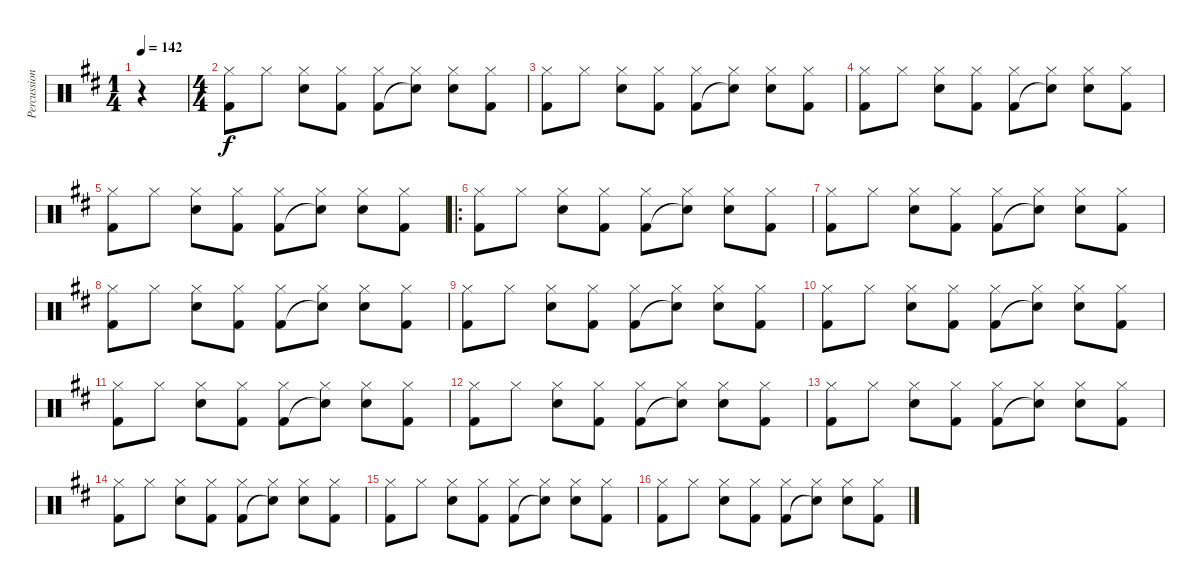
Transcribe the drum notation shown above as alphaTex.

\track ("Percussion" "Percussion") {instrument percussion}
\staff {score}
\articulation defaults
\ts (1 4)
\tempo 142
\clef neutral
\ks d
r.4{dy f} |
\ts (4 4)
("Hi-Hat (closed)" "Kick (hit) 2").8 "Hi-Hat (closed)".8 ("Hi-Hat (closed)" "Snare (hit) 2").8 ("Hi-Hat (closed)" "Kick (hit) 2").8 ("Hi-Hat (closed)" "Kick (hit) 2").8 ("Hi-Hat (closed)" "Snare (hit)"{t}).8 ("Hi-Hat (closed)" "Snare (hit) 2").8 ("Hi-Hat (closed)" "Kick (hit) 2").8 |
("Hi-Hat (closed)" "Kick (hit) 2").8 "Hi-Hat (closed)".8 ("Hi-Hat (closed)" "Snare (hit) 2").8 ("Hi-Hat (closed)" "Kick (hit) 2").8 ("Hi-Hat (closed)" "Kick (hit) 2").8 ("Hi-Hat (closed)" "Snare (hit)"{t}).8 ("Hi-Hat (closed)" "Snare (hit) 2").8 ("Hi-Hat (closed)" "Kick (hit) 2").8 |
("Hi-Hat (closed)" "Kick (hit) 2").8 "Hi-Hat (closed)".8 ("Hi-Hat (closed)" "Snare (hit) 2").8 ("Hi-Hat (closed)" "Kick (hit) 2").8 ("Hi-Hat (closed)" "Kick (hit) 2").8 ("Hi-Hat (closed)" "Snare (hit)"{t}).8 ("Hi-Hat (closed)" "Snare (hit) 2").8 ("Hi-Hat (closed)" "Kick (hit) 2").8 |
("Hi-Hat (closed)" "Kick (hit) 2").8 "Hi-Hat (closed)".8 ("Hi-Hat (closed)" "Snare (hit) 2").8 ("Hi-Hat (closed)" "Kick (hit) 2").8 ("Hi-Hat (closed)" "Kick (hit) 2").8 ("Hi-Hat (closed)" "Snare (hit)"{t}).8 ("Hi-Hat (closed)" "Snare (hit) 2").8 ("Hi-Hat (closed)" "Kick (hit) 2").8 |
\ro
("Hi-Hat (closed)" "Kick (hit) 2").8 "Hi-Hat (closed)".8 ("Hi-Hat (closed)" "Snare (hit) 2").8 ("Hi-Hat (closed)" "Kick (hit) 2").8 ("Hi-Hat (closed)" "Kick (hit) 2").8 ("Hi-Hat (closed)" "Snare (hit)"{t}).8 ("Hi-Hat (closed)" "Snare (hit) 2").8 ("Hi-Hat (closed)" "Kick (hit) 2").8 |
("Hi-Hat (closed)" "Kick (hit) 2").8 "Hi-Hat (closed)".8 ("Hi-Hat (closed)" "Snare (hit) 2").8 ("Hi-Hat (closed)" "Kick (hit) 2").8 ("Hi-Hat (closed)" "Kick (hit) 2").8 ("Hi-Hat (closed)" "Snare (hit)"{t}).8 ("Hi-Hat (closed)" "Snare (hit) 2").8 ("Hi-Hat (closed)" "Kick (hit) 2").8 |
("Hi-Hat (closed)" "Kick (hit) 2").8 "Hi-Hat (closed)".8 ("Hi-Hat (closed)" "Snare (hit) 2").8 ("Hi-Hat (closed)" "Kick (hit) 2").8 ("Hi-Hat (closed)" "Kick (hit) 2").8 ("Hi-Hat (closed)" "Snare (hit)"{t}).8 ("Hi-Hat (closed)" "Snare (hit) 2").8 ("Hi-Hat (closed)" "Kick (hit) 2").8 |
("Hi-Hat (closed)" "Kick (hit) 2").8 "Hi-Hat (closed)".8 ("Hi-Hat (closed)" "Snare (hit) 2").8 ("Hi-Hat (closed)" "Kick (hit) 2").8 ("Hi-Hat (closed)" "Kick (hit) 2").8 ("Hi-Hat (closed)" "Snare (hit)"{t}).8 ("Hi-Hat (closed)" "Snare (hit) 2").8 ("Hi-Hat (closed)" "Kick (hit) 2").8 |
("Hi-Hat (closed)" "Kick (hit) 2").8 "Hi-Hat (closed)".8 ("Hi-Hat (closed)" "Snare (hit) 2").8 ("Hi-Hat (closed)" "Kick (hit) 2").8 ("Hi-Hat (closed)" "Kick (hit) 2").8 ("Hi-Hat (closed)" "Snare (hit)"{t}).8 ("Hi-Hat (closed)" "Snare (hit) 2").8 ("Hi-Hat (closed)" "Kick (hit) 2").8 |
("Hi-Hat (closed)" "Kick (hit) 2").8 "Hi-Hat (closed)".8 ("Hi-Hat (closed)" "Snare (hit) 2").8 ("Hi-Hat (closed)" "Kick (hit) 2").8 ("Hi-Hat (closed)" "Kick (hit) 2").8 ("Hi-Hat (closed)" "Snare (hit)"{t}).8 ("Hi-Hat (closed)" "Snare (hit) 2").8 ("Hi-Hat (closed)" "Kick (hit) 2").8 |
("Hi-Hat (closed)" "Kick (hit) 2").8 "Hi-Hat (closed)".8 ("Hi-Hat (closed)" "Snare (hit) 2").8 ("Hi-Hat (closed)" "Kick (hit) 2").8 ("Hi-Hat (closed)" "Kick (hit) 2").8 ("Hi-Hat (closed)" "Snare (hit)"{t}).8 ("Hi-Hat (closed)" "Snare (hit) 2").8 ("Hi-Hat (closed)" "Kick (hit) 2").8 |
("Hi-Hat (closed)" "Kick (hit) 2").8 "Hi-Hat (closed)".8 ("Hi-Hat (closed)" "Snare (hit) 2").8 ("Hi-Hat (closed)" "Kick (hit) 2").8 ("Hi-Hat (closed)" "Kick (hit) 2").8 ("Hi-Hat (closed)" "Snare (hit)"{t}).8 ("Hi-Hat (closed)" "Snare (hit) 2").8 ("Hi-Hat (closed)" "Kick (hit) 2").8 |
("Hi-Hat (closed)" "Kick (hit) 2").8 "Hi-Hat (closed)".8 ("Hi-Hat (closed)" "Snare (hit) 2").8 ("Hi-Hat (closed)" "Kick (hit) 2").8 ("Hi-Hat (closed)" "Kick (hit) 2").8 ("Hi-Hat (closed)" "Snare (hit)"{t}).8 ("Hi-Hat (closed)" "Snare (hit) 2").8 ("Hi-Hat (closed)" "Kick (hit) 2").8 |
("Hi-Hat (closed)" "Kick (hit) 2").8 "Hi-Hat (closed)".8 ("Hi-Hat (closed)" "Snare (hit) 2").8 ("Hi-Hat (closed)" "Kick (hit) 2").8 ("Hi-Hat (closed)" "Kick (hit) 2").8 ("Hi-Hat (closed)" "Snare (hit)"{t}).8 ("Hi-Hat (closed)" "Snare (hit) 2").8 ("Hi-Hat (closed)" "Kick (hit) 2").8 |
("Hi-Hat (closed)" "Kick (hit) 2").8 "Hi-Hat (closed)".8 ("Hi-Hat (closed)" "Snare (hit) 2").8 ("Hi-Hat (closed)" "Kick (hit) 2").8 ("Hi-Hat (closed)" "Kick (hit) 2").8 ("Hi-Hat (closed)" "Snare (hit)"{t}).8 ("Hi-Hat (closed)" "Snare (hit) 2").8 ("Hi-Hat (closed)" "Kick (hit) 2").8
